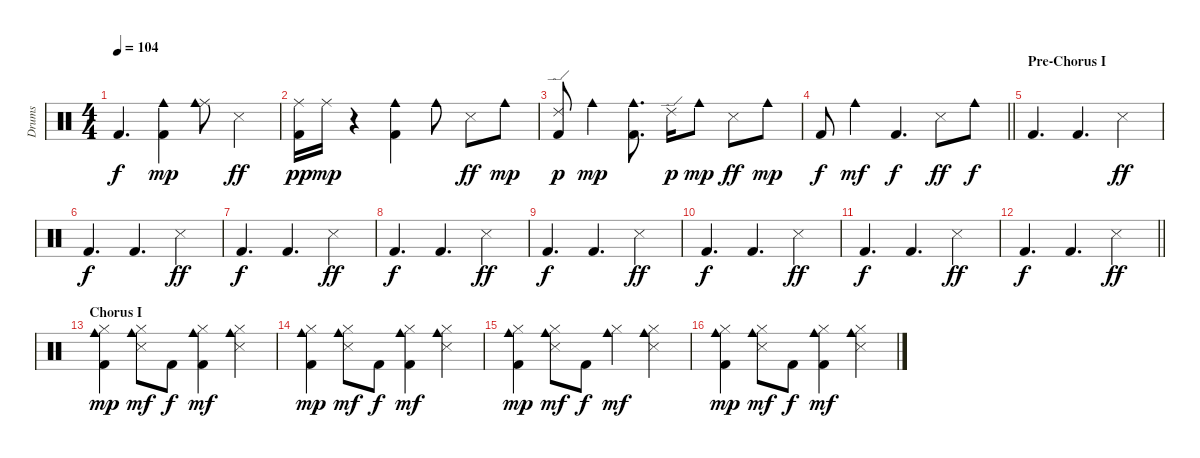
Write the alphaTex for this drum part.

\track ("Drums" "Drums") {instrument percussion}
\staff {score}
\articulation defaults
\ts (4 4)
\tempo 104
\clef neutral
\ks c "Kick (hit) 2".4{d dy f}
("Kick (hit) 2" "Cowbell medium (hit)").4{dy mp} ("Ride (middle)" "Cowbell medium (hit)").8 "Snare (side stick) 3".4{dy ff} |
("Ride (middle)" "Kick (hit) 2").16{dy pp} "Ride (middle)".16{dy mp} r.4 ("Kick (hit) 2" "Cowbell medium (hit)").4 "Cowbell medium (hit)".8 "Snare (side stick) 3".8{dy ff} "Cowbell medium (hit)".8{dy mp} |
("Ride (edge) 2" "Kick (hit) 2").8{dy p} "Cowbell medium (hit)".4{dy mp} ("Kick (hit) 2" "Cowbell medium (hit)").8{d} "Ride (edge) 2".16{dy p} "Cowbell medium (hit)".8{dy mp} "Snare (side stick) 3".8{dy ff} "Cowbell medium (hit)".8{dy mp} |
\barLineRight lightlight "Kick (hit) 2".8{dy f} "Cowbell medium (hit)".4{dy mf} "Kick (hit) 2".4{d dy f} "Snare (side stick) 3".8{dy ff} "Cowbell medium (hit)".8{dy f}
|
\section ("" "Pre-Chorus I")
"Kick (hit) 2".4{d} "Kick (hit) 2".4{d} "Snare (side stick) 3".4{dy ff} |
"Kick (hit) 2".4{d dy f} "Kick (hit) 2".4{d} "Snare (side stick) 3".4{dy ff} |
"Kick (hit) 2".4{d dy f} "Kick (hit) 2".4{d} "Snare (side stick) 3".4{dy ff} |
"Kick (hit) 2".4{d dy f} "Kick (hit) 2".4{d} "Snare (side stick) 3".4{dy ff} |
"Kick (hit) 2".4{d dy f} "Kick (hit) 2".4{d} "Snare (side stick) 3".4{dy ff} |
"Kick (hit) 2".4{d dy f} "Kick (hit) 2".4{d} "Snare (side stick) 3".4{dy ff} |
"Kick (hit) 2".4{d dy f} "Kick (hit) 2".4{d} "Snare (side stick) 3".4{dy ff} |
\barLineRight lightlight "Kick (hit) 2".4{d dy f} "Kick (hit) 2".4{d} "Snare (side stick) 3".4{dy ff}
|
\section ("" "Chorus I")
("Hi-Hat (closed)" "Kick (hit) 2" "Cowbell medium (hit)").4{dy mp} ("Hi-Hat (closed)" "Snare (side stick) 3" "Cowbell medium (hit)").8{dy mf} "Kick (hit) 2".8{dy f} ("Hi-Hat (closed)" "Kick (hit) 2" "Cowbell medium (hit)").4{dy mf} ("Hi-Hat (closed)" "Snare (side stick) 3" "Cowbell medium (hit)").4 |
("Hi-Hat (closed)" "Kick (hit) 2" "Cowbell medium (hit)").4{dy mp} ("Hi-Hat (closed)" "Snare (side stick) 3" "Cowbell medium (hit)").8{dy mf} "Kick (hit) 2".8{dy f} ("Hi-Hat (closed)" "Kick (hit) 2" "Cowbell medium (hit)").4{dy mf} ("Hi-Hat (closed)" "Snare (side stick) 3" "Cowbell medium (hit)").4 |
("Hi-Hat (closed)" "Kick (hit) 2" "Cowbell medium (hit)").4{dy mp} ("Hi-Hat (closed)" "Snare (side stick) 3" "Cowbell medium (hit)").8{dy mf} "Kick (hit) 2".8{dy f} ("Hi-Hat (closed)" "Cowbell medium (hit)").4{dy mf} ("Hi-Hat (closed)" "Snare (side stick) 3" "Cowbell medium (hit)").4 |
("Hi-Hat (closed)" "Kick (hit) 2" "Cowbell medium (hit)").4{dy mp} ("Hi-Hat (closed)" "Snare (side stick) 3" "Cowbell medium (hit)").8{dy mf} "Kick (hit) 2".8{dy f} ("Hi-Hat (closed)" "Kick (hit) 2" "Cowbell medium (hit)").4{dy mf} ("Hi-Hat (closed)" "Snare (side stick) 3" "Cowbell medium (hit)").4
